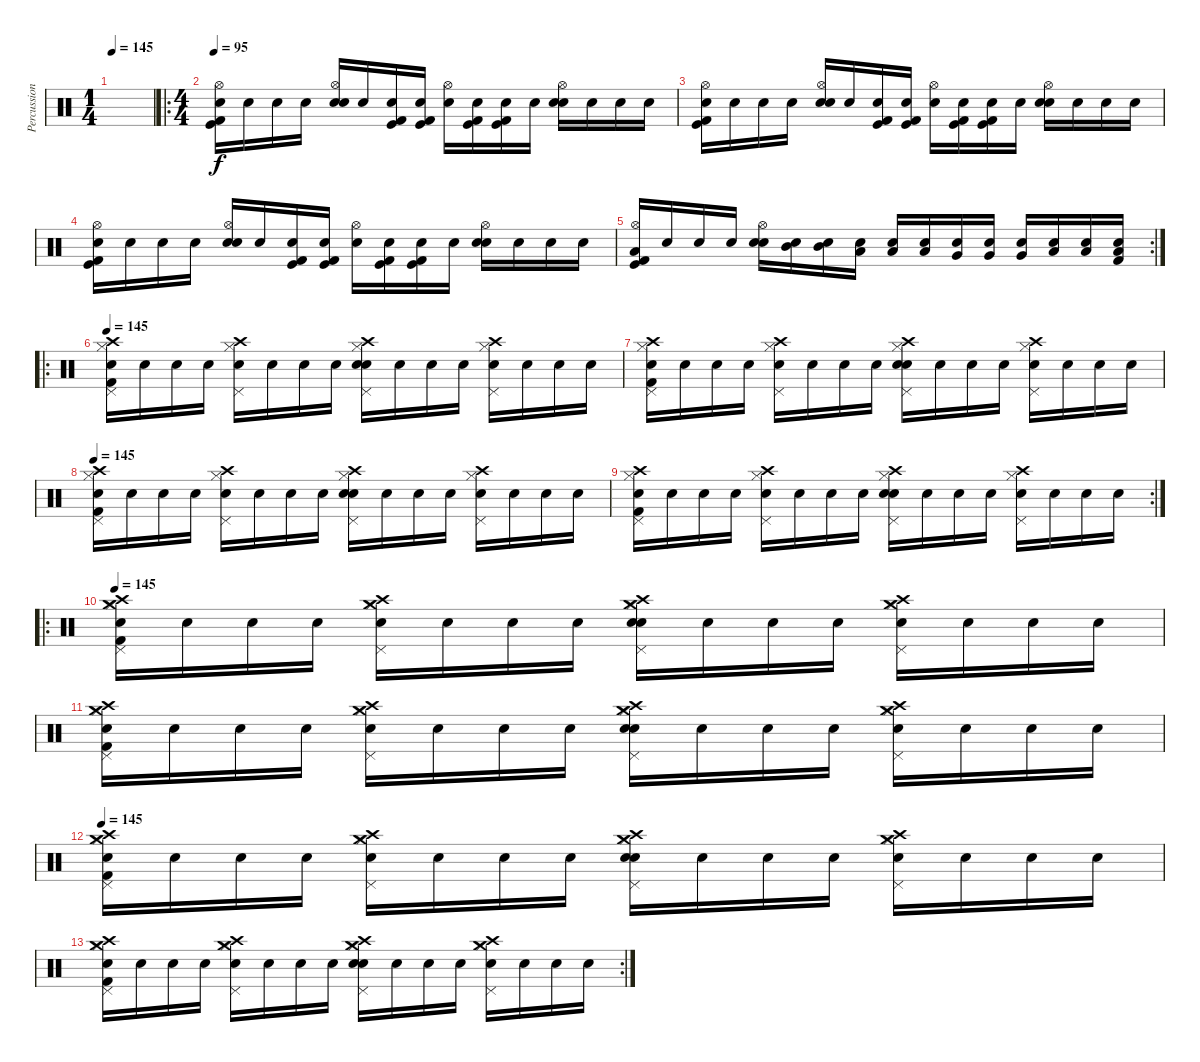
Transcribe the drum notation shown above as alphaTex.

\track ("Percussions" "Percussion") {instrument percussion}
\staff {score}
\articulation defaults
\ts (1 4)
\tempo 145
\clef neutral
\ks c
|
\ro
\ts (4 4)
\tempo 95
("Snare (hit)" "Kick (hit)" "Kick (hit) 2" "Hi-Hat (open)").16 "Snare (hit)".16 "Snare (hit)".16 "Snare (hit)".16 ("Snare (hit)" "Electric Snare (hit)" "Hi-Hat (open)").16 "Snare (hit)".16 ("Snare (hit)" "Kick (hit)" "Kick (hit) 2").16 ("Snare (hit)" "Kick (hit)" "Kick (hit) 2").16 ("Snare (hit)" "Hi-Hat (open)").16 ("Snare (hit)" "Kick (hit)" "Kick (hit) 2").16 ("Snare (hit)" "Kick (hit)" "Kick (hit) 2").16 "Snare (hit)".16 ("Snare (hit)" "Electric Snare (hit)" "Hi-Hat (open)").16 "Snare (hit)".16 "Snare (hit)".16 "Snare (hit)".16 |
("Snare (hit)" "Kick (hit)" "Kick (hit) 2" "Hi-Hat (open)").16 "Snare (hit)".16 "Snare (hit)".16 "Snare (hit)".16 ("Snare (hit)" "Electric Snare (hit)" "Hi-Hat (open)").16 "Snare (hit)".16 ("Snare (hit)" "Kick (hit)" "Kick (hit) 2").16 ("Snare (hit)" "Kick (hit)" "Kick (hit) 2").16 ("Snare (hit)" "Hi-Hat (open)").16 ("Snare (hit)" "Kick (hit)" "Kick (hit) 2").16 ("Snare (hit)" "Kick (hit)" "Kick (hit) 2").16 "Snare (hit)".16 ("Snare (hit)" "Electric Snare (hit)" "Hi-Hat (open)").16 "Snare (hit)".16 "Snare (hit)".16 "Snare (hit)".16 |
("Snare (hit)" "Kick (hit)" "Kick (hit) 2" "Hi-Hat (open)").16 "Snare (hit)".16 "Snare (hit)".16 "Snare (hit)".16 ("Snare (hit)" "Electric Snare (hit)" "Hi-Hat (open)").16 "Snare (hit)".16 ("Snare (hit)" "Kick (hit)" "Kick (hit) 2").16 ("Snare (hit)" "Kick (hit)" "Kick (hit) 2").16 ("Snare (hit)" "Hi-Hat (open)").16 ("Snare (hit)" "Kick (hit)" "Kick (hit) 2").16 ("Snare (hit)" "Kick (hit)" "Kick (hit) 2").16 "Snare (hit)".16 ("Snare (hit)" "Electric Snare (hit)" "Hi-Hat (open)").16 "Snare (hit)".16 "Snare (hit)".16 "Snare (hit)".16 |
\rc 2
("Low Tom (hit)" "Kick (hit)" "Kick (hit) 2" "Hi-Hat (open)").16 "Snare (hit)".16 "Snare (hit)".16 "Snare (hit)".16 ("Snare (hit)" "Electric Snare (hit)" "Hi-Hat (open)").16 ("Snare (hit)" "Mid Tom (hit)").16 ("Snare (hit)" "Mid Tom (hit)").16 ("Snare (hit)" "Low Tom (hit)").16 ("Snare (hit)" "Low Tom (hit)").16 ("Snare (hit)" "Low Tom (hit)").16 ("Snare (hit)" "Very Low Tom (hit)").16 ("Snare (hit)" "Very Low Tom (hit)").16 ("Snare (hit)" "Very Low Tom (hit)").16 ("Snare (hit)" "Low Floor Tom (hit)").16 ("Snare (hit)" "Low Floor Tom (hit)").16 ("Snare (hit)" "Kick (hit) 2" "Low Floor Tom (hit)").16 |
\ro
\tempo 145
("Snare (hit)" "Hi-Hat (closed)" "Pedal Hi-Hat (hit)" "Kick (hit) 2" "Crash high (hit)").16 "Snare (hit)".16 "Snare (hit)".16 "Snare (hit)".16 ("Snare (hit)" "Hi-Hat (closed)" "Pedal Hi-Hat (hit)" "Crash high (hit)").16 "Snare (hit)".16 "Snare (hit)".16 "Snare (hit)".16 ("Snare (hit)" "Hi-Hat (closed)" "Pedal Hi-Hat (hit)" "Electric Snare (hit)" "Crash high (hit)").16 "Snare (hit)".16 "Snare (hit)".16 "Snare (hit)".16 ("Snare (hit)" "Hi-Hat (closed)" "Pedal Hi-Hat (hit)" "Crash high (hit)").16 "Snare (hit)".16 "Snare (hit)".16 "Snare (hit)".16 |
("Snare (hit)" "Hi-Hat (closed)" "Pedal Hi-Hat (hit)" "Kick (hit) 2" "Crash high (hit)").16 "Snare (hit)".16 "Snare (hit)".16 "Snare (hit)".16 ("Snare (hit)" "Hi-Hat (closed)" "Pedal Hi-Hat (hit)" "Crash high (hit)").16 "Snare (hit)".16 "Snare (hit)".16 "Snare (hit)".16 ("Snare (hit)" "Hi-Hat (closed)" "Pedal Hi-Hat (hit)" "Electric Snare (hit)" "Crash high (hit)").16 "Snare (hit)".16 "Snare (hit)".16 "Snare (hit)".16 ("Snare (hit)" "Hi-Hat (closed)" "Pedal Hi-Hat (hit)" "Crash high (hit)").16 "Snare (hit)".16 "Snare (hit)".16 "Snare (hit)".16 |
\tempo 145
("Snare (hit)" "Hi-Hat (closed)" "Pedal Hi-Hat (hit)" "Kick (hit) 2" "Crash high (hit)").16 "Snare (hit)".16 "Snare (hit)".16 "Snare (hit)".16 ("Snare (hit)" "Hi-Hat (closed)" "Pedal Hi-Hat (hit)" "Crash high (hit)").16 "Snare (hit)".16 "Snare (hit)".16 "Snare (hit)".16 ("Snare (hit)" "Hi-Hat (closed)" "Pedal Hi-Hat (hit)" "Electric Snare (hit)" "Crash high (hit)").16 "Snare (hit)".16 "Snare (hit)".16 "Snare (hit)".16 ("Snare (hit)" "Hi-Hat (closed)" "Pedal Hi-Hat (hit)" "Crash high (hit)").16 "Snare (hit)".16 "Snare (hit)".16 "Snare (hit)".16 |
\rc 2
("Snare (hit)" "Hi-Hat (closed)" "Pedal Hi-Hat (hit)" "Kick (hit) 2" "Crash high (hit)").16 "Snare (hit)".16 "Snare (hit)".16 "Snare (hit)".16 ("Snare (hit)" "Hi-Hat (closed)" "Pedal Hi-Hat (hit)" "Crash high (hit)").16 "Snare (hit)".16 "Snare (hit)".16 "Snare (hit)".16 ("Snare (hit)" "Hi-Hat (closed)" "Pedal Hi-Hat (hit)" "Electric Snare (hit)" "Crash high (hit)").16 "Snare (hit)".16 "Snare (hit)".16 "Snare (hit)".16 ("Snare (hit)" "Hi-Hat (closed)" "Pedal Hi-Hat (hit)" "Crash high (hit)").16 "Snare (hit)".16 "Snare (hit)".16 "Snare (hit)".16 |
\ro
\tempo 145
("Snare (hit)" "Hi-Hat (closed)" "Pedal Hi-Hat (hit)" "Kick (hit) 2" "Crash medium (hit)" "Crash high (hit)").16 "Snare (hit)".16 "Snare (hit)".16 "Snare (hit)".16 ("Snare (hit)" "Hi-Hat (closed)" "Pedal Hi-Hat (hit)" "Crash medium (hit)" "Crash high (hit)").16 "Snare (hit)".16 "Snare (hit)".16 "Snare (hit)".16 ("Snare (hit)" "Hi-Hat (closed)" "Pedal Hi-Hat (hit)" "Electric Snare (hit)" "Crash medium (hit)" "Crash high (hit)").16 "Snare (hit)".16 "Snare (hit)".16 "Snare (hit)".16 ("Snare (hit)" "Hi-Hat (closed)" "Pedal Hi-Hat (hit)" "Crash medium (hit)" "Crash high (hit)").16 "Snare (hit)".16 "Snare (hit)".16 "Snare (hit)".16 |
("Snare (hit)" "Hi-Hat (closed)" "Pedal Hi-Hat (hit)" "Kick (hit) 2" "Crash medium (hit)" "Crash high (hit)").16 "Snare (hit)".16 "Snare (hit)".16 "Snare (hit)".16 ("Snare (hit)" "Hi-Hat (closed)" "Pedal Hi-Hat (hit)" "Crash medium (hit)" "Crash high (hit)").16 "Snare (hit)".16 "Snare (hit)".16 "Snare (hit)".16 ("Snare (hit)" "Hi-Hat (closed)" "Pedal Hi-Hat (hit)" "Electric Snare (hit)" "Crash medium (hit)" "Crash high (hit)").16 "Snare (hit)".16 "Snare (hit)".16 "Snare (hit)".16 ("Snare (hit)" "Hi-Hat (closed)" "Pedal Hi-Hat (hit)" "Crash medium (hit)" "Crash high (hit)").16 "Snare (hit)".16 "Snare (hit)".16 "Snare (hit)".16 |
\tempo 145
("Snare (hit)" "Hi-Hat (closed)" "Pedal Hi-Hat (hit)" "Kick (hit) 2" "Crash medium (hit)" "Crash high (hit)").16 "Snare (hit)".16 "Snare (hit)".16 "Snare (hit)".16 ("Snare (hit)" "Hi-Hat (closed)" "Pedal Hi-Hat (hit)" "Crash medium (hit)" "Crash high (hit)").16 "Snare (hit)".16 "Snare (hit)".16 "Snare (hit)".16 ("Snare (hit)" "Hi-Hat (closed)" "Pedal Hi-Hat (hit)" "Electric Snare (hit)" "Crash medium (hit)" "Crash high (hit)").16 "Snare (hit)".16 "Snare (hit)".16 "Snare (hit)".16 ("Snare (hit)" "Hi-Hat (closed)" "Pedal Hi-Hat (hit)" "Crash medium (hit)" "Crash high (hit)").16 "Snare (hit)".16 "Snare (hit)".16 "Snare (hit)".16 |
\rc 2
("Snare (hit)" "Hi-Hat (closed)" "Pedal Hi-Hat (hit)" "Kick (hit) 2" "Crash medium (hit)" "Crash high (hit)").16 "Snare (hit)".16 "Snare (hit)".16 "Snare (hit)".16 ("Snare (hit)" "Hi-Hat (closed)" "Pedal Hi-Hat (hit)" "Crash medium (hit)" "Crash high (hit)").16 "Snare (hit)".16 "Snare (hit)".16 "Snare (hit)".16 ("Snare (hit)" "Hi-Hat (closed)" "Pedal Hi-Hat (hit)" "Electric Snare (hit)" "Crash medium (hit)" "Crash high (hit)").16 "Snare (hit)".16 "Snare (hit)".16 "Snare (hit)".16 ("Snare (hit)" "Hi-Hat (closed)" "Pedal Hi-Hat (hit)" "Crash medium (hit)" "Crash high (hit)").16 "Snare (hit)".16 "Snare (hit)".16 "Snare (hit)".16
